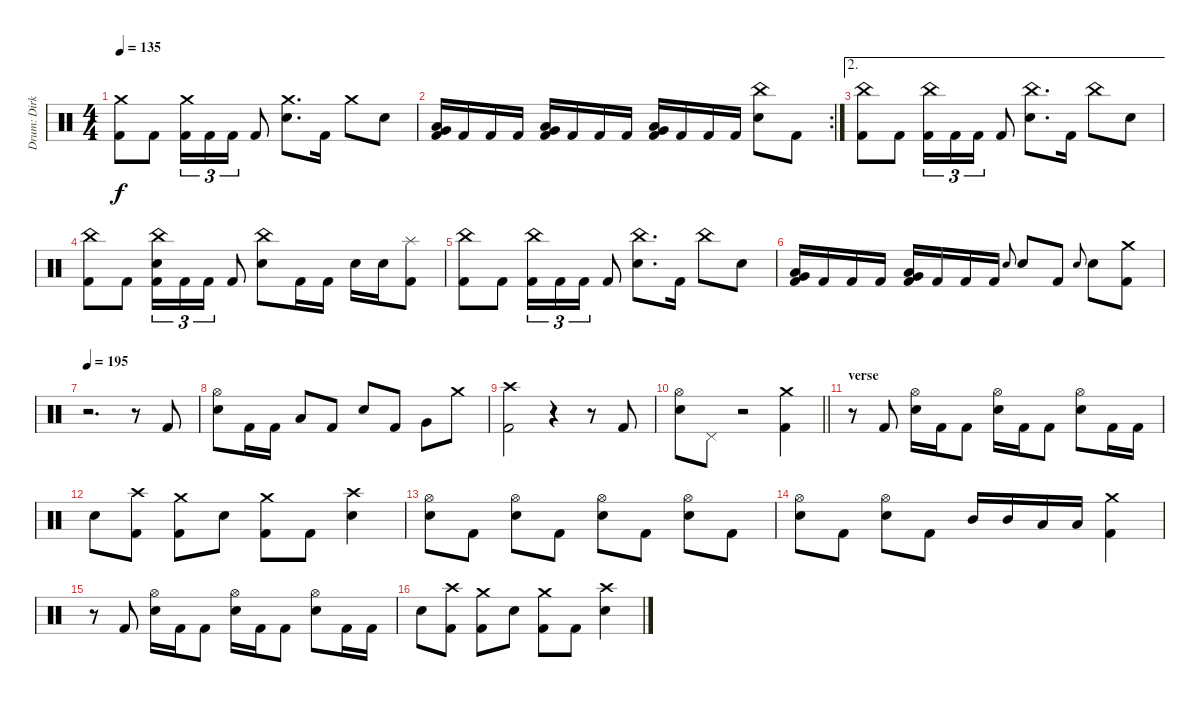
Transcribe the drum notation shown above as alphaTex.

\track ("Drum: Dirk" "Drum: Dirk") {instrument percussion}
\staff {score}
\articulation defaults
\ts (4 4)
\tempo 135
\clef neutral
\ks c
("Crash medium (hit)" "Kick (hit) 2").8{dy f} "Kick (hit) 2".8 ("Crash medium (hit)" "Kick (hit) 2").16{tu (3 2)} "Kick (hit) 2".16{tu (3 2)} "Kick (hit) 2".16{tu (3 2)} "Kick (hit) 2".8 ("Crash medium (hit)" "Electric Snare (hit)").8{d} "Kick (hit) 2".16 "Crash medium (hit)".8 "Electric Snare (hit)".8 |
\rc 2
("Low Tom (hit)" "Very Low Tom (hit)" "Kick (hit) 2").16 "Kick (hit) 2".16 "Kick (hit) 2".16 "Kick (hit) 2".16 ("Low Tom (hit)" "Very Low Tom (hit)" "Kick (hit) 2").16 "Kick (hit) 2".16 "Kick (hit) 2".16 "Kick (hit) 2".16 ("Low Tom (hit)" "Very Low Tom (hit)" "Kick (hit) 2").16 "Kick (hit) 2".16 "Kick (hit) 2".16 "Kick (hit) 2".16 ("China (hit)" "Electric Snare (hit)").8 "Kick (hit) 2".8 |
\ae 2
("China (hit)" "Kick (hit) 2").8 "Kick (hit) 2".8 ("China (hit)" "Kick (hit) 2").16{tu (3 2)} "Kick (hit) 2".16{tu (3 2)} "Kick (hit) 2".16{tu (3 2)} "Kick (hit) 2".8 ("China (hit)" "Electric Snare (hit)").8{d} "Kick (hit) 2".16 "China (hit)".8 "Electric Snare (hit)".8 |
("China (hit)" "Kick (hit) 2").8 "Kick (hit) 2".8 ("China (hit)" "Electric Snare (hit)" "Kick (hit) 2").16{tu (3 2)} "Kick (hit) 2".16{tu (3 2)} "Kick (hit) 2".16{tu (3 2)} "Kick (hit) 2".8 ("China (hit)" "Electric Snare (hit)").8 "Kick (hit) 2".16 "Kick (hit) 2".16 "Electric Snare (hit)".16 "Electric Snare (hit)".16 ("Splash (hit)" "Kick (hit) 2").8 |
("China (hit)" "Kick (hit) 2").8 "Kick (hit) 2".8 ("China (hit)" "Kick (hit) 2").16{tu (3 2)} "Kick (hit) 2".16{tu (3 2)} "Kick (hit) 2".16{tu (3 2)} "Kick (hit) 2".8 ("China (hit)" "Electric Snare (hit)").8{d} "Kick (hit) 2".16 "China (hit)".8 "Electric Snare (hit)".8 |
("Low Tom (hit)" "Very Low Tom (hit)" "Kick (hit) 2").16 "Kick (hit) 2".16 "Kick (hit) 2".16 "Kick (hit) 2".16 ("Low Tom (hit)" "Very Low Tom (hit)" "Kick (hit) 2").16 "Kick (hit) 2".16 "Kick (hit) 2".16 "Kick (hit) 2".16 "Electric Snare (hit)".8{gr onbeat} "Electric Snare (hit)".8 "Kick (hit) 2".8 "Electric Snare (hit)".8{gr onbeat} "Electric Snare (hit)".8 ("Crash medium (hit)" "Kick (hit) 2").8 |
\tempo 195
r.2{d} r.8 "Kick (hit) 2".8 |
("Hi-Hat (open)" "Electric Snare (hit)").8 "Kick (hit) 2".16 "Kick (hit) 2".16 "Low Tom (hit)".8 "Kick (hit) 2".8 "Electric Snare (hit)".8 "Kick (hit) 2".8 "Very Low Tom (hit)".8 "Crash medium (hit)".8 |
("Crash high (hit)" "Kick (hit) 2").2 r.4 r.8 "Kick (hit) 2".8 |
\barLineRight lightlight
("Hi-Hat (open)" "Electric Snare (hit)").8 "Pedal Hi-Hat (hit)".8 r.2 ("Crash medium (hit)" "Kick (hit) 2").4 |
\section ("" "verse")
r.8 "Kick (hit) 2".8 ("Hi-Hat (open)" "Electric Snare (hit)").16 "Kick (hit) 2".16 "Kick (hit) 2".8 ("Hi-Hat (open)" "Electric Snare (hit)").16 "Kick (hit) 2".16 "Kick (hit) 2".8 ("Hi-Hat (open)" "Electric Snare (hit)").8 "Kick (hit) 2".16 "Kick (hit) 2".16 |
"Electric Snare (hit)".8 ("Crash high (hit)" "Kick (hit) 2").8 ("Crash medium (hit)" "Kick (hit) 2").8 "Electric Snare (hit)".8 ("Crash medium (hit)" "Kick (hit) 2").8 "Kick (hit) 2".8 ("Crash high (hit)" "Electric Snare (hit)").4 |
("Hi-Hat (open)" "Electric Snare (hit)").8 "Kick (hit) 2".8 ("Hi-Hat (open)" "Electric Snare (hit)").8 "Kick (hit) 2".8 ("Hi-Hat (open)" "Electric Snare (hit)").8 "Kick (hit) 2".8 ("Hi-Hat (open)" "Electric Snare (hit)").8 "Kick (hit) 2".8 |
("Hi-Hat (open)" "Electric Snare (hit)").8 "Kick (hit) 2".8 ("Hi-Hat (open)" "Electric Snare (hit)").8 "Kick (hit) 2".8 "Mid Tom (hit)".16 "Mid Tom (hit)".16 "Low Tom (hit)".16 "Low Tom (hit)".16 ("Crash medium (hit)" "Kick (hit) 2").4 |
r.8 "Kick (hit) 2".8 ("Hi-Hat (open)" "Electric Snare (hit)").16 "Kick (hit) 2".16 "Kick (hit) 2".8 ("Hi-Hat (open)" "Electric Snare (hit)").16 "Kick (hit) 2".16 "Kick (hit) 2".8 ("Hi-Hat (open)" "Electric Snare (hit)").8 "Kick (hit) 2".16 "Kick (hit) 2".16 |
"Electric Snare (hit)".8 ("Crash high (hit)" "Kick (hit) 2").8 ("Crash medium (hit)" "Kick (hit) 2").8 "Electric Snare (hit)".8 ("Crash medium (hit)" "Kick (hit) 2").8 "Kick (hit) 2".8 ("Crash high (hit)" "Electric Snare (hit)").4
